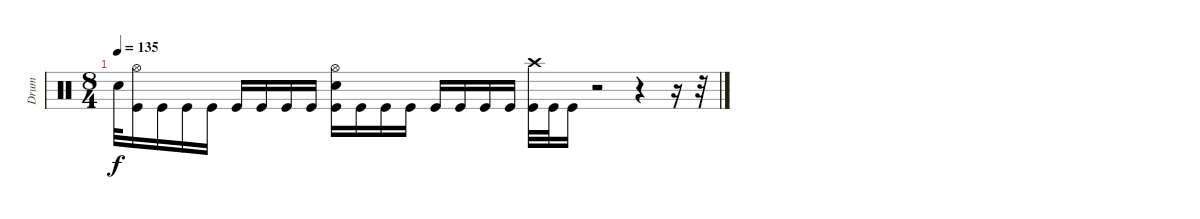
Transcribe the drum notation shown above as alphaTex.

\track ("Drum" "Drum") {instrument percussion}
\staff {score}
\articulation defaults
\ts (8 4)
\tempo 135
\clef neutral
\ks c "Snare (hit)"{t}.32{dy f}
("Hi-Hat (open)" "Kick (hit)").16 "Kick (hit)".16 "Kick (hit)".16 "Kick (hit)".16 "Kick (hit)".16 "Kick (hit)".16 "Kick (hit)".16 "Kick (hit)".16 ("Hi-Hat (open)" "Electric Snare (hit)" "Kick (hit)").16 "Kick (hit)".16 "Kick (hit)".16 "Kick (hit)".16 "Kick (hit)".16 "Kick (hit)".16 "Kick (hit)".16 "Kick (hit)".16 ("Crash high (hit)" "Kick (hit)").32 "Kick (hit)".32 "Kick (hit)".16 r.2 r.4 r.16 r.32
